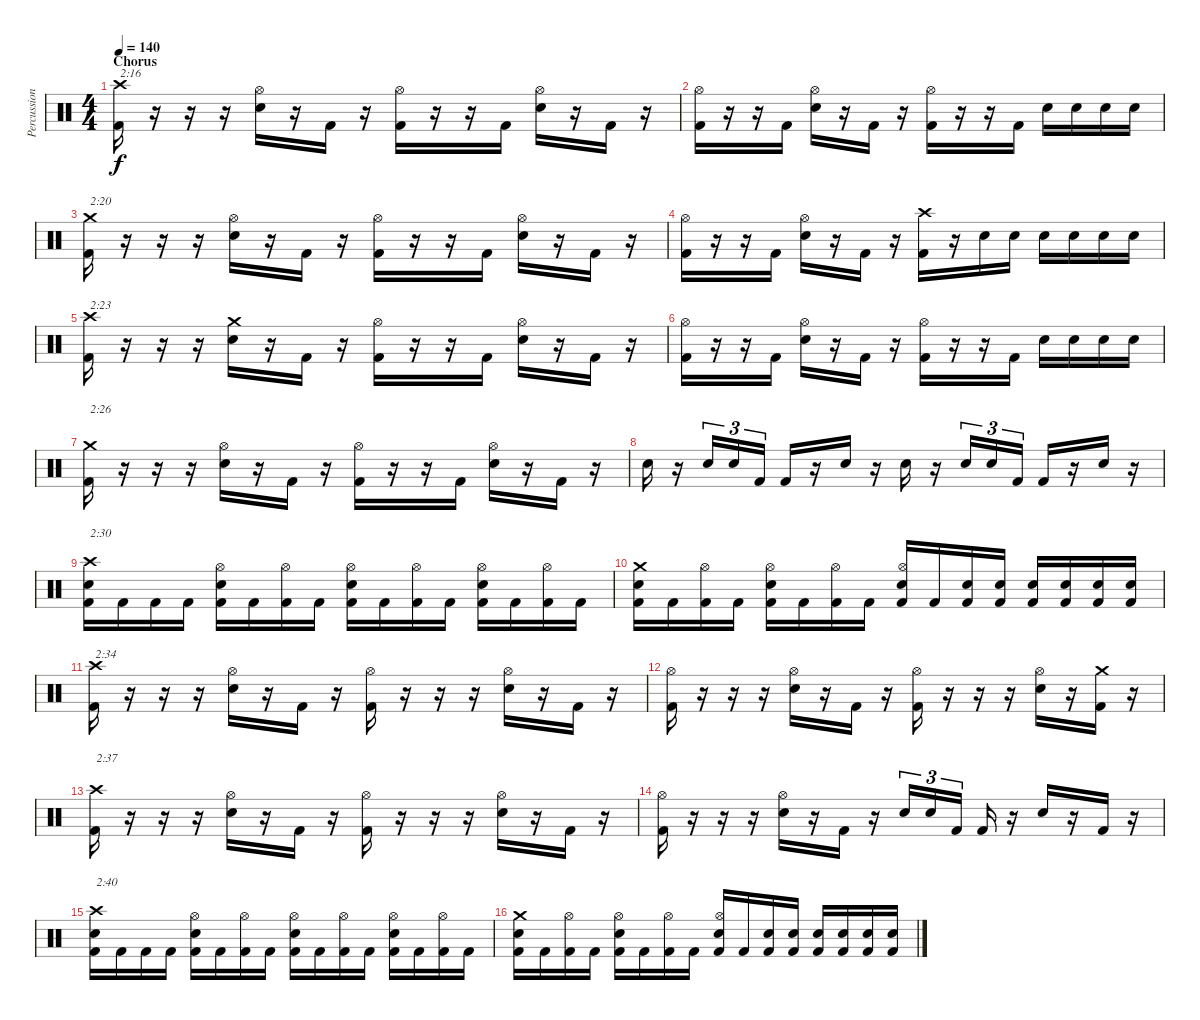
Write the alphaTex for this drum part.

\track ("Percussion" "Percussion") {instrument percussion}
\staff {score}
\articulation defaults
\ts (4 4)
\section ("" "Chorus")
\tempo 140
\clef neutral
\ks c
("Crash high (hit)" "Kick (hit) 2").16{txt "2:16" dy f} r.16 r.16 r.16 ("Hi-Hat (open)" "Electric Snare (hit)").16 r.16 "Kick (hit) 2".16 r.16 ("Hi-Hat (open)" "Kick (hit) 2").16 r.16 r.16 "Kick (hit) 2".16 ("Hi-Hat (open)" "Electric Snare (hit)").16 r.16 "Kick (hit) 2".16 r.16 |
("Hi-Hat (open)" "Kick (hit) 2").16 r.16 r.16 "Kick (hit) 2".16 ("Hi-Hat (open)" "Electric Snare (hit)").16 r.16 "Kick (hit) 2".16 r.16 ("Hi-Hat (open)" "Kick (hit) 2").16 r.16 r.16 "Kick (hit) 2".16 "Electric Snare (hit)".16 "Electric Snare (hit)".16 "Electric Snare (hit)".16 "Electric Snare (hit)".16 |
("Crash medium (hit)" "Kick (hit) 2").16{txt "2:20"} r.16 r.16 r.16 ("Hi-Hat (open)" "Electric Snare (hit)").16 r.16 "Kick (hit) 2".16 r.16 ("Hi-Hat (open)" "Kick (hit) 2").16 r.16 r.16 "Kick (hit) 2".16 ("Hi-Hat (open)" "Electric Snare (hit)").16 r.16 "Kick (hit) 2".16 r.16 |
("Hi-Hat (open)" "Kick (hit) 2").16 r.16 r.16 "Kick (hit) 2".16 ("Hi-Hat (open)" "Electric Snare (hit)").16 r.16 "Kick (hit) 2".16 r.16 ("Crash high (hit)" "Kick (hit) 2").16 r.16 "Electric Snare (hit)".16 "Electric Snare (hit)".16 "Electric Snare (hit)".16 "Electric Snare (hit)".16 "Electric Snare (hit)".16 "Electric Snare (hit)".16 |
("Crash high (hit)" "Kick (hit) 2").16{txt "2:23"} r.16 r.16 r.16 ("Crash medium (hit)" "Electric Snare (hit)").16 r.16 "Kick (hit) 2".16 r.16 ("Hi-Hat (open)" "Kick (hit) 2").16 r.16 r.16 "Kick (hit) 2".16 ("Hi-Hat (open)" "Electric Snare (hit)").16 r.16 "Kick (hit) 2".16 r.16 |
("Hi-Hat (open)" "Kick (hit) 2").16 r.16 r.16 "Kick (hit) 2".16 ("Hi-Hat (open)" "Electric Snare (hit)").16 r.16 "Kick (hit) 2".16 r.16 ("Hi-Hat (open)" "Kick (hit) 2").16 r.16 r.16 "Kick (hit) 2".16 "Electric Snare (hit)".16 "Electric Snare (hit)".16 "Electric Snare (hit)".16 "Electric Snare (hit)".16 |
("Crash medium (hit)" "Kick (hit) 2").16{txt "2:26"} r.16 r.16 r.16 ("Hi-Hat (open)" "Electric Snare (hit)").16 r.16 "Kick (hit) 2".16 r.16 ("Hi-Hat (open)" "Kick (hit) 2").16 r.16 r.16 "Kick (hit) 2".16 ("Hi-Hat (open)" "Electric Snare (hit)").16 r.16 "Kick (hit) 2".16 r.16 |
"Electric Snare (hit)".16 r.16 "Electric Snare (hit)".16{tu (3 2)} "Electric Snare (hit)".16{tu (3 2)} "Kick (hit) 2".16{tu (3 2)} "Kick (hit) 2".16 r.16 "Electric Snare (hit)".16 r.16 "Electric Snare (hit)".16 r.16 "Electric Snare (hit)".16{tu (3 2)} "Electric Snare (hit)".16{tu (3 2)} "Kick (hit) 2".16{tu (3 2)} "Kick (hit) 2".16 r.16 "Electric Snare (hit)".16 r.16 |
("Crash high (hit)" "Electric Snare (hit)" "Kick (hit) 2").16{txt "2:30"} "Kick (hit) 2".16 "Kick (hit) 2".16 "Kick (hit) 2".16 ("Hi-Hat (open)" "Electric Snare (hit)" "Kick (hit) 2").16 "Kick (hit) 2".16 ("Hi-Hat (open)" "Kick (hit) 2").16 "Kick (hit) 2".16 ("Hi-Hat (open)" "Electric Snare (hit)" "Kick (hit) 2").16 "Kick (hit) 2".16 ("Hi-Hat (open)" "Kick (hit) 2").16 "Kick (hit) 2".16 ("Hi-Hat (open)" "Electric Snare (hit)" "Kick (hit) 2").16 "Kick (hit) 2".16 ("Hi-Hat (open)" "Kick (hit) 2").16 "Kick (hit) 2".16 |
("Crash medium (hit)" "Electric Snare (hit)" "Kick (hit) 2").16 "Kick (hit) 2".16 ("Hi-Hat (open)" "Kick (hit) 2").16 "Kick (hit) 2".16 ("Hi-Hat (open)" "Electric Snare (hit)" "Kick (hit) 2").16 "Kick (hit) 2".16 ("Hi-Hat (open)" "Kick (hit) 2").16 "Kick (hit) 2".16 ("Hi-Hat (open)" "Electric Snare (hit)" "Kick (hit) 2").16 "Kick (hit) 2".16 ("Electric Snare (hit)" "Kick (hit) 2").16 ("Electric Snare (hit)" "Kick (hit) 2").16 ("Electric Snare (hit)" "Kick (hit) 2").16 ("Electric Snare (hit)" "Kick (hit) 2").16 ("Electric Snare (hit)" "Kick (hit) 2").16 ("Electric Snare (hit)" "Kick (hit) 2").16 |
("Crash high (hit)" "Kick (hit) 2").16{txt "2:34"} r.16 r.16 r.16 ("Hi-Hat (open)" "Electric Snare (hit)").16 r.16 "Kick (hit) 2".16 r.16 ("Hi-Hat (open)" "Kick (hit) 2").16 r.16 r.16 r.16 ("Hi-Hat (open)" "Electric Snare (hit)").16 r.16 "Kick (hit) 2".16 r.16 |
("Hi-Hat (open)" "Kick (hit) 2").16 r.16 r.16 r.16 ("Hi-Hat (open)" "Electric Snare (hit)").16 r.16 "Kick (hit) 2".16 r.16 ("Hi-Hat (open)" "Kick (hit) 2").16 r.16 r.16 r.16 ("Hi-Hat (open)" "Electric Snare (hit)").16 r.16 ("Crash medium (hit)" "Kick (hit) 2").16 r.16 |
("Crash high (hit)" "Kick (hit) 2").16{txt "2:37"} r.16 r.16 r.16 ("Hi-Hat (open)" "Electric Snare (hit)").16 r.16 "Kick (hit) 2".16 r.16 ("Hi-Hat (open)" "Kick (hit) 2").16 r.16 r.16 r.16 ("Hi-Hat (open)" "Electric Snare (hit)").16 r.16 "Kick (hit) 2".16 r.16 |
("Hi-Hat (open)" "Kick (hit) 2").16 r.16 r.16 r.16 ("Hi-Hat (open)" "Electric Snare (hit)").16 r.16 "Kick (hit) 2".16 r.16 "Electric Snare (hit)".16{tu (3 2)} "Electric Snare (hit)".16{tu (3 2)} "Kick (hit) 2".16{tu (3 2)} "Kick (hit) 2".16 r.16 "Electric Snare (hit)".16 r.16 "Kick (hit) 2".16 r.16 |
("Crash high (hit)" "Electric Snare (hit)" "Kick (hit) 2").16{txt "2:40"} "Kick (hit) 2".16 "Kick (hit) 2".16 "Kick (hit) 2".16 ("Hi-Hat (open)" "Electric Snare (hit)" "Kick (hit) 2").16 "Kick (hit) 2".16 ("Hi-Hat (open)" "Kick (hit) 2").16 "Kick (hit) 2".16 ("Hi-Hat (open)" "Electric Snare (hit)" "Kick (hit) 2").16 "Kick (hit) 2".16 ("Hi-Hat (open)" "Kick (hit) 2").16 "Kick (hit) 2".16 ("Hi-Hat (open)" "Electric Snare (hit)" "Kick (hit) 2").16 "Kick (hit) 2".16 ("Hi-Hat (open)" "Kick (hit) 2").16 "Kick (hit) 2".16 |
("Crash medium (hit)" "Electric Snare (hit)" "Kick (hit) 2").16 "Kick (hit) 2".16 ("Hi-Hat (open)" "Kick (hit) 2").16 "Kick (hit) 2".16 ("Hi-Hat (open)" "Electric Snare (hit)" "Kick (hit) 2").16 "Kick (hit) 2".16 ("Hi-Hat (open)" "Kick (hit) 2").16 "Kick (hit) 2".16 ("Hi-Hat (open)" "Electric Snare (hit)" "Kick (hit) 2").16 "Kick (hit) 2".16 ("Electric Snare (hit)" "Kick (hit) 2").16 ("Electric Snare (hit)" "Kick (hit) 2").16 ("Electric Snare (hit)" "Kick (hit) 2").16 ("Electric Snare (hit)" "Kick (hit) 2").16 ("Electric Snare (hit)" "Kick (hit) 2").16 ("Electric Snare (hit)" "Kick (hit) 2").16
